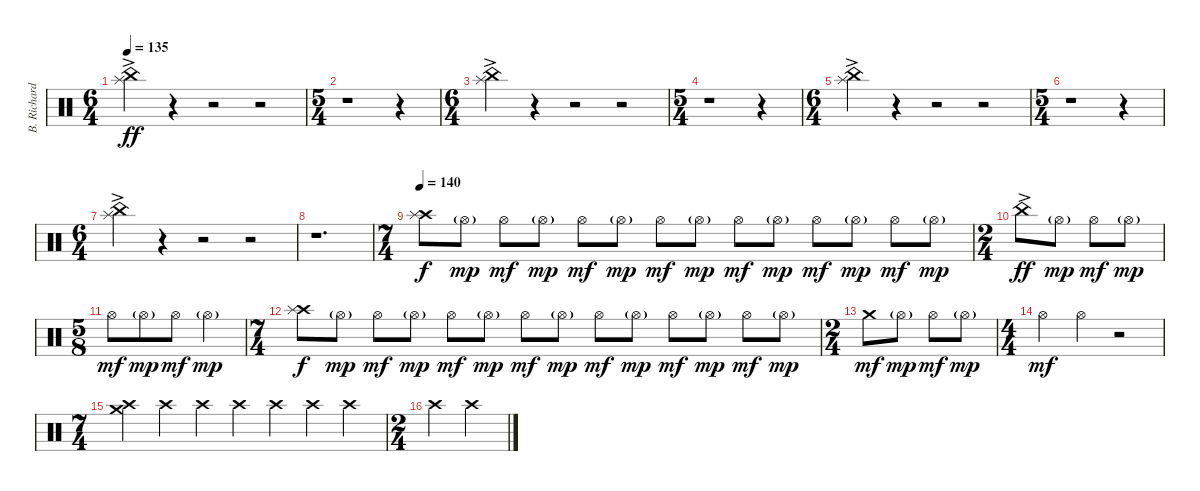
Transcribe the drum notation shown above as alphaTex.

\track ("B. Richardson Drums" "B. Richard") {instrument percussion}
\staff {score}
\articulation defaults
\ts (6 4)
\tempo 135
\clef neutral
\ks c
("China (hit)"{ac} "Splash (hit)").4{dy ff} r.4 r.2 r.2 |
\ts (5 4)
r.1 r.4 |
\ts (6 4)
("China (hit)"{ac} "Splash (hit)").4 r.4 r.2 r.2 |
\ts (5 4)
r.1 r.4 |
\ts (6 4)
("China (hit)"{ac} "Splash (hit)").4 r.4 r.2 r.2 |
\ts (5 4)
r.1 r.4 |
\ts (6 4)
("China (hit)"{ac} "Splash (hit)").4 r.4 r.2 r.2 |
r.1{d} |
\ts (7 4)
\tempo 140
("Crash high (hit)" "Splash (hit)").8{dy f} "Hi-Hat (open)"{g}.8{dy mp} "Hi-Hat (open)".8{dy mf} "Hi-Hat (open)"{g}.8{dy mp} "Hi-Hat (open)".8{dy mf} "Hi-Hat (open)"{g}.8{dy mp} "Hi-Hat (open)".8{dy mf} "Hi-Hat (open)"{g}.8{dy mp} "Hi-Hat (open)".8{dy mf} "Hi-Hat (open)"{g}.8{dy mp} "Hi-Hat (open)".8{dy mf} "Hi-Hat (open)"{g}.8{dy mp} "Hi-Hat (open)".8{dy mf} "Hi-Hat (open)"{g}.8{dy mp} |
\ts (2 4)
"China (hit)"{ac}.8{dy ff} "Hi-Hat (open)"{g}.8{dy mp} "Hi-Hat (open)".8{dy mf} "Hi-Hat (open)"{g}.8{dy mp} |
\ts (5 8)
"Hi-Hat (open)".8{dy mf} "Hi-Hat (open)"{g}.8{dy mp} "Hi-Hat (open)".8{dy mf} "Hi-Hat (open)"{g}.4{dy mp} |
\ts (7 4)
("Crash high (hit)" "Splash (hit)").8{dy f} "Hi-Hat (open)"{g}.8{dy mp} "Hi-Hat (open)".8{dy mf} "Hi-Hat (open)"{g}.8{dy mp} "Hi-Hat (open)".8{dy mf} "Hi-Hat (open)"{g}.8{dy mp} "Hi-Hat (open)".8{dy mf} "Hi-Hat (open)"{g}.8{dy mp} "Hi-Hat (open)".8{dy mf} "Hi-Hat (open)"{g}.8{dy mp} "Hi-Hat (open)".8{dy mf} "Hi-Hat (open)"{g}.8{dy mp} "Hi-Hat (open)".8{dy mf} "Hi-Hat (open)"{g}.8{dy mp} |
\ts (2 4)
"Crash medium (hit)".8{dy mf} "Hi-Hat (open)"{g}.8{dy mp} "Hi-Hat (open)".8{dy mf} "Hi-Hat (open)"{g}.8{dy mp} |
\ts (4 4)
"Hi-Hat (open)".4{dy mf} "Hi-Hat (open)".4 r.2 |
\ts (7 4)
("Crash high (hit)" "Crash medium (hit)").4 "Crash high (hit)".4 "Crash high (hit)".4 "Crash high (hit)".4 "Crash high (hit)".4 "Crash high (hit)".4 "Crash high (hit)".4 |
\ts (2 4)
"Crash high (hit)".4 "Crash high (hit)".4
